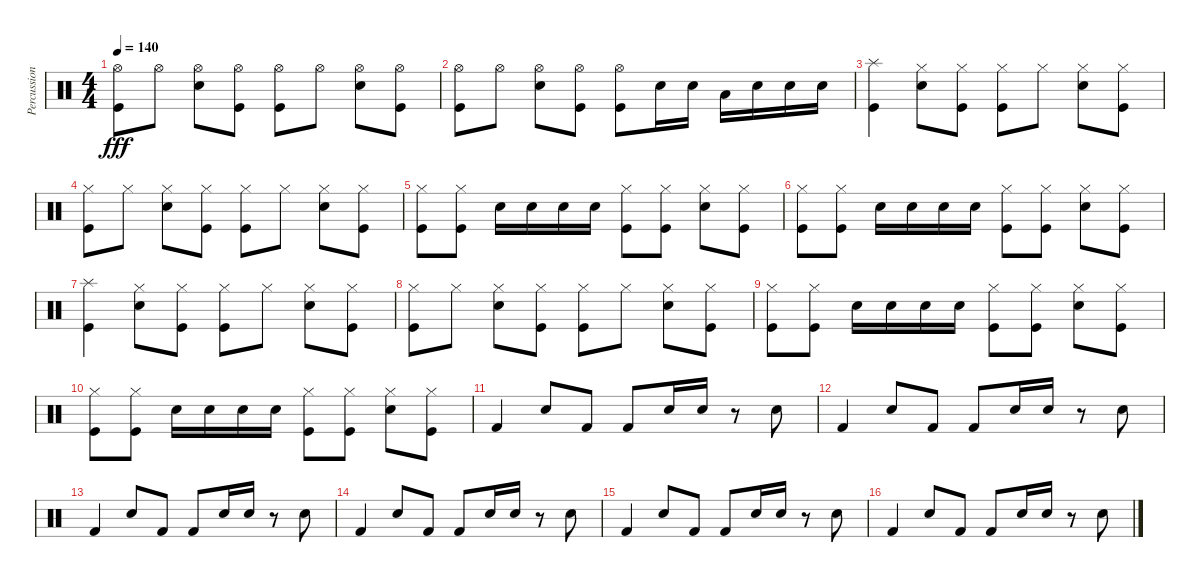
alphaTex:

\track ("Percussion" "Percussion") {instrument percussion}
\staff {score}
\articulation defaults
\ts (4 4)
\tempo 140
\clef neutral
\ks c
("Hi-Hat (open)" "Kick (hit)").8{dy fff} "Hi-Hat (open)".8 ("Hi-Hat (open)" "Snare (hit) 2").8 ("Hi-Hat (open)" "Kick (hit)").8 ("Hi-Hat (open)" "Kick (hit)").8 "Hi-Hat (open)".8 ("Hi-Hat (open)" "Snare (hit) 2").8 ("Hi-Hat (open)" "Kick (hit)").8 |
("Hi-Hat (open)" "Kick (hit)").8 "Hi-Hat (open)".8 ("Hi-Hat (open)" "Snare (hit) 2").8 ("Hi-Hat (open)" "Kick (hit)").8 ("Hi-Hat (open)" "Kick (hit)").8 "Snare (hit) 2".16 "Snare (hit) 2".16 "Low Tom (hit)".16 "Snare (hit) 2".16 "Snare (hit) 2".16 "Snare (hit) 2".16 |
("Splash (hit)" "Kick (hit)").4 ("Hi-Hat (closed)" "Snare (hit) 2").8 ("Hi-Hat (closed)" "Kick (hit)").8 ("Hi-Hat (closed)" "Kick (hit)").8 "Hi-Hat (closed)".8 ("Hi-Hat (closed)" "Snare (hit) 2").8 ("Hi-Hat (closed)" "Kick (hit)").8 |
("Hi-Hat (closed)" "Kick (hit)").8 "Hi-Hat (closed)".8 ("Hi-Hat (closed)" "Snare (hit) 2").8 ("Hi-Hat (closed)" "Kick (hit)").8 ("Hi-Hat (closed)" "Kick (hit)").8 "Hi-Hat (closed)".8 ("Hi-Hat (closed)" "Snare (hit) 2").8 ("Hi-Hat (closed)" "Kick (hit)").8 |
("Hi-Hat (closed)" "Kick (hit)").8 ("Hi-Hat (closed)" "Kick (hit)").8 "Snare (hit) 2".16 "Snare (hit) 2".16 "Snare (hit) 2".16 "Snare (hit) 2".16 ("Hi-Hat (closed)" "Kick (hit)").8 ("Hi-Hat (closed)" "Kick (hit)").8 ("Hi-Hat (closed)" "Snare (hit) 2").8 ("Hi-Hat (closed)" "Kick (hit)").8 |
("Hi-Hat (closed)" "Kick (hit)").8 ("Hi-Hat (closed)" "Kick (hit)").8 "Snare (hit) 2".16 "Snare (hit) 2".16 "Snare (hit) 2".16 "Snare (hit) 2".16 ("Hi-Hat (closed)" "Kick (hit)").8 ("Hi-Hat (closed)" "Kick (hit)").8 ("Hi-Hat (closed)" "Snare (hit) 2").8 ("Hi-Hat (closed)" "Kick (hit)").8 |
("Splash (hit)" "Kick (hit)").4 ("Hi-Hat (closed)" "Snare (hit) 2").8 ("Hi-Hat (closed)" "Kick (hit)").8 ("Hi-Hat (closed)" "Kick (hit)").8 "Hi-Hat (closed)".8 ("Hi-Hat (closed)" "Snare (hit) 2").8 ("Hi-Hat (closed)" "Kick (hit)").8 |
("Hi-Hat (closed)" "Kick (hit)").8 "Hi-Hat (closed)".8 ("Hi-Hat (closed)" "Snare (hit) 2").8 ("Hi-Hat (closed)" "Kick (hit)").8 ("Hi-Hat (closed)" "Kick (hit)").8 "Hi-Hat (closed)".8 ("Hi-Hat (closed)" "Snare (hit) 2").8 ("Hi-Hat (closed)" "Kick (hit)").8 |
("Hi-Hat (closed)" "Kick (hit)").8 ("Hi-Hat (closed)" "Kick (hit)").8 "Snare (hit) 2".16 "Snare (hit) 2".16 "Snare (hit) 2".16 "Snare (hit) 2".16 ("Hi-Hat (closed)" "Kick (hit)").8 ("Hi-Hat (closed)" "Kick (hit)").8 ("Hi-Hat (closed)" "Snare (hit) 2").8 ("Hi-Hat (closed)" "Kick (hit)").8 |
("Hi-Hat (closed)" "Kick (hit)").8 ("Hi-Hat (closed)" "Kick (hit)").8 "Snare (hit) 2".16 "Snare (hit) 2".16 "Snare (hit) 2".16 "Snare (hit) 2".16 ("Hi-Hat (closed)" "Kick (hit)").8 ("Hi-Hat (closed)" "Kick (hit)").8 ("Hi-Hat (closed)" "Snare (hit) 2").8 ("Hi-Hat (closed)" "Kick (hit)").8 |
"Kick (hit) 2".4 "Snare (hit) 2".8 "Kick (hit) 2".8 "Kick (hit) 2".8 "Snare (hit) 2".16 "Snare (hit) 2".16 r.8 "Snare (hit) 2".8 |
"Kick (hit) 2".4 "Snare (hit) 2".8 "Kick (hit) 2".8 "Kick (hit) 2".8 "Snare (hit) 2".16 "Snare (hit) 2".16 r.8 "Snare (hit) 2".8 |
"Kick (hit) 2".4 "Snare (hit) 2".8 "Kick (hit) 2".8 "Kick (hit) 2".8 "Snare (hit) 2".16 "Snare (hit) 2".16 r.8 "Snare (hit) 2".8 |
"Kick (hit) 2".4 "Snare (hit) 2".8 "Kick (hit) 2".8 "Kick (hit) 2".8 "Snare (hit) 2".16 "Snare (hit) 2".16 r.8 "Snare (hit) 2".8 |
"Kick (hit) 2".4 "Snare (hit) 2".8 "Kick (hit) 2".8 "Kick (hit) 2".8 "Snare (hit) 2".16 "Snare (hit) 2".16 r.8 "Snare (hit) 2".8 |
"Kick (hit) 2".4 "Snare (hit) 2".8 "Kick (hit) 2".8 "Kick (hit) 2".8 "Snare (hit) 2".16 "Snare (hit) 2".16 r.8 "Snare (hit) 2".8
